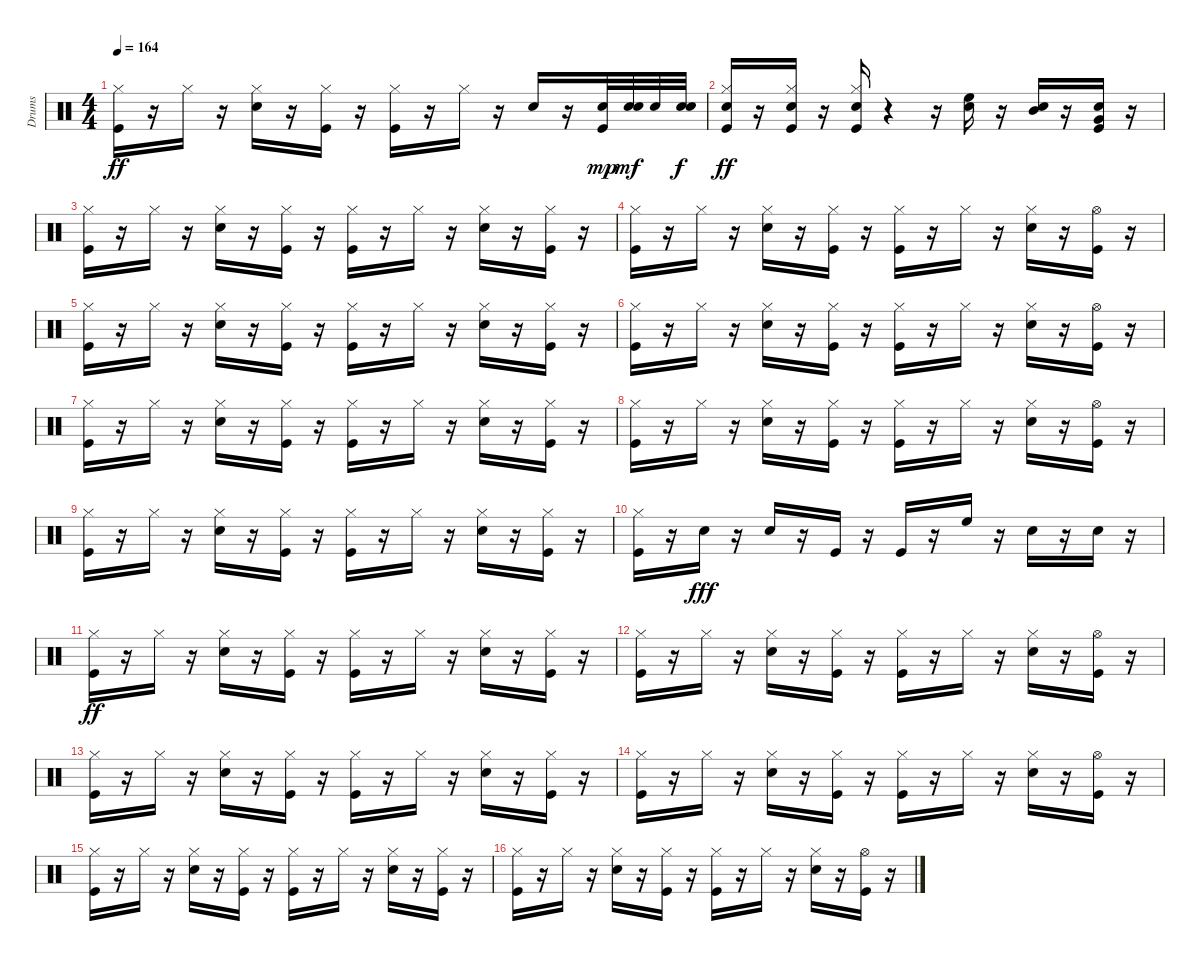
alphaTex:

\track ("Drums" "Drums") {instrument percussion}
\staff {score}
\articulation defaults
\ts (4 4)
\tempo 164
\clef neutral
\ks c
("Kick (hit)" "Hi-Hat (closed)").16{dy ff} r.16 "Hi-Hat (closed)".16 r.16 ("Electric Snare (hit)" "Hi-Hat (closed)").16 r.16 ("Kick (hit)" "Hi-Hat (closed)").16 r.16 ("Kick (hit)" "Hi-Hat (closed)").16 r.16 "Hi-Hat (closed)".16 r.16 "Electric Snare (hit)".16 r.16 ("Kick (hit)" "Electric Snare (hit)").32{dy mp} ("Electric Snare (hit)" "Electric Snare (hit)").32{dy mf} "Electric Snare (hit)".32 ("Electric Snare (hit)" "Electric Snare (hit)").32{dy f} |
("Kick (hit)" "Electric Snare (hit)" "Hi-Hat (closed)").16{dy ff} r.16 ("Electric Snare (hit)" "Hi-Hat (closed)" "Kick (hit)").16 r.16 ("Electric Snare (hit)" "Hi-Hat (closed)" "Kick (hit)").16 r.4 r.16 ("Electric Snare (hit)" "High Floor Tom (hit)").16 r.16 ("Electric Snare (hit)" "Mid Tom (hit)").16 r.16 ("Kick (hit)" "Electric Snare (hit)" "Very Low Tom (hit)").16 r.16 |
("Kick (hit)" "Hi-Hat (closed)").16 r.16 "Hi-Hat (closed)".16 r.16 ("Electric Snare (hit)" "Hi-Hat (closed)").16 r.16 ("Kick (hit)" "Hi-Hat (closed)").16 r.16 ("Kick (hit)" "Hi-Hat (closed)").16 r.16 "Hi-Hat (closed)".16 r.16 ("Electric Snare (hit)" "Hi-Hat (closed)").16 r.16 ("Kick (hit)" "Hi-Hat (closed)").16 r.16 |
("Kick (hit)" "Hi-Hat (closed)").16 r.16 "Hi-Hat (closed)".16 r.16 ("Electric Snare (hit)" "Hi-Hat (closed)").16 r.16 ("Kick (hit)" "Hi-Hat (closed)").16 r.16 ("Kick (hit)" "Hi-Hat (closed)").16 r.16 "Hi-Hat (closed)".16 r.16 ("Electric Snare (hit)" "Hi-Hat (closed)").16 r.16 ("Kick (hit)" "Hi-Hat (open)").16 r.16 |
("Kick (hit)" "Hi-Hat (closed)").16 r.16 "Hi-Hat (closed)".16 r.16 ("Electric Snare (hit)" "Hi-Hat (closed)").16 r.16 ("Kick (hit)" "Hi-Hat (closed)").16 r.16 ("Kick (hit)" "Hi-Hat (closed)").16 r.16 "Hi-Hat (closed)".16 r.16 ("Electric Snare (hit)" "Hi-Hat (closed)").16 r.16 ("Kick (hit)" "Hi-Hat (closed)").16 r.16 |
("Kick (hit)" "Hi-Hat (closed)").16 r.16 "Hi-Hat (closed)".16 r.16 ("Electric Snare (hit)" "Hi-Hat (closed)").16 r.16 ("Kick (hit)" "Hi-Hat (closed)").16 r.16 ("Kick (hit)" "Hi-Hat (closed)").16 r.16 "Hi-Hat (closed)".16 r.16 ("Electric Snare (hit)" "Hi-Hat (closed)").16 r.16 ("Kick (hit)" "Hi-Hat (open)").16 r.16 |
("Kick (hit)" "Hi-Hat (closed)").16 r.16 "Hi-Hat (closed)".16 r.16 ("Electric Snare (hit)" "Hi-Hat (closed)").16 r.16 ("Kick (hit)" "Hi-Hat (closed)").16 r.16 ("Kick (hit)" "Hi-Hat (closed)").16 r.16 "Hi-Hat (closed)".16 r.16 ("Electric Snare (hit)" "Hi-Hat (closed)").16 r.16 ("Kick (hit)" "Hi-Hat (closed)").16 r.16 |
("Kick (hit)" "Hi-Hat (closed)").16 r.16 "Hi-Hat (closed)".16 r.16 ("Electric Snare (hit)" "Hi-Hat (closed)").16 r.16 ("Kick (hit)" "Hi-Hat (closed)").16 r.16 ("Kick (hit)" "Hi-Hat (closed)").16 r.16 "Hi-Hat (closed)".16 r.16 ("Electric Snare (hit)" "Hi-Hat (closed)").16 r.16 ("Kick (hit)" "Hi-Hat (open)").16 r.16 |
("Kick (hit)" "Hi-Hat (closed)").16 r.16 "Hi-Hat (closed)".16 r.16 ("Electric Snare (hit)" "Hi-Hat (closed)").16 r.16 ("Kick (hit)" "Hi-Hat (closed)").16 r.16 ("Kick (hit)" "Hi-Hat (closed)").16 r.16 "Hi-Hat (closed)".16 r.16 ("Electric Snare (hit)" "Hi-Hat (closed)").16 r.16 ("Kick (hit)" "Hi-Hat (closed)").16 r.16 |
("Kick (hit)" "Hi-Hat (closed)").16 r.16 "Electric Snare (hit)".16{dy fff} r.16 "Electric Snare (hit)".16 r.16 "Kick (hit)".16 r.16 "Kick (hit)".16 r.16 "High Floor Tom (hit)".16 r.16 "Electric Snare (hit)".16 r.16 "Electric Snare (hit)".16 r.16 |
("Kick (hit)" "Hi-Hat (closed)").16{dy ff} r.16 "Hi-Hat (closed)".16 r.16 ("Electric Snare (hit)" "Hi-Hat (closed)").16 r.16 ("Kick (hit)" "Hi-Hat (closed)").16 r.16 ("Kick (hit)" "Hi-Hat (closed)").16 r.16 "Hi-Hat (closed)".16 r.16 ("Electric Snare (hit)" "Hi-Hat (closed)").16 r.16 ("Kick (hit)" "Hi-Hat (closed)").16 r.16 |
("Kick (hit)" "Hi-Hat (closed)").16 r.16 "Hi-Hat (closed)".16 r.16 ("Electric Snare (hit)" "Hi-Hat (closed)").16 r.16 ("Kick (hit)" "Hi-Hat (closed)").16 r.16 ("Kick (hit)" "Hi-Hat (closed)").16 r.16 "Hi-Hat (closed)".16 r.16 ("Electric Snare (hit)" "Hi-Hat (closed)").16 r.16 ("Kick (hit)" "Hi-Hat (open)").16 r.16 |
("Kick (hit)" "Hi-Hat (closed)").16 r.16 "Hi-Hat (closed)".16 r.16 ("Electric Snare (hit)" "Hi-Hat (closed)").16 r.16 ("Kick (hit)" "Hi-Hat (closed)").16 r.16 ("Kick (hit)" "Hi-Hat (closed)").16 r.16 "Hi-Hat (closed)".16 r.16 ("Electric Snare (hit)" "Hi-Hat (closed)").16 r.16 ("Kick (hit)" "Hi-Hat (closed)").16 r.16 |
("Kick (hit)" "Hi-Hat (closed)").16 r.16 "Hi-Hat (closed)".16 r.16 ("Electric Snare (hit)" "Hi-Hat (closed)").16 r.16 ("Kick (hit)" "Hi-Hat (closed)").16 r.16 ("Kick (hit)" "Hi-Hat (closed)").16 r.16 "Hi-Hat (closed)".16 r.16 ("Electric Snare (hit)" "Hi-Hat (closed)").16 r.16 ("Kick (hit)" "Hi-Hat (open)").16 r.16 |
("Kick (hit)" "Hi-Hat (closed)").16 r.16 "Hi-Hat (closed)".16 r.16 ("Electric Snare (hit)" "Hi-Hat (closed)").16 r.16 ("Kick (hit)" "Hi-Hat (closed)").16 r.16 ("Kick (hit)" "Hi-Hat (closed)").16 r.16 "Hi-Hat (closed)".16 r.16 ("Electric Snare (hit)" "Hi-Hat (closed)").16 r.16 ("Kick (hit)" "Hi-Hat (closed)").16 r.16 |
("Kick (hit)" "Hi-Hat (closed)").16 r.16 "Hi-Hat (closed)".16 r.16 ("Electric Snare (hit)" "Hi-Hat (closed)").16 r.16 ("Kick (hit)" "Hi-Hat (closed)").16 r.16 ("Kick (hit)" "Hi-Hat (closed)").16 r.16 "Hi-Hat (closed)".16 r.16 ("Electric Snare (hit)" "Hi-Hat (closed)").16 r.16 ("Kick (hit)" "Hi-Hat (open)").16 r.16
